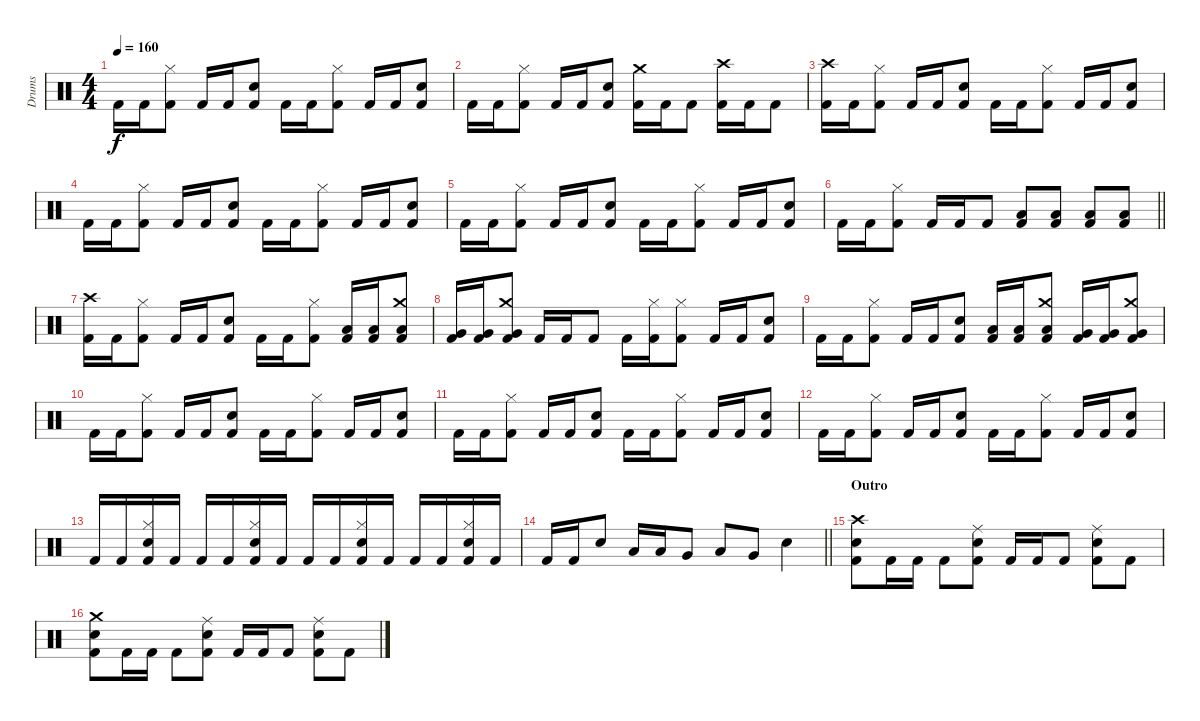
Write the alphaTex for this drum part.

\track ("Drums" "Drums") {instrument percussion}
\staff {score}
\articulation defaults
\ts (4 4)
\tempo 160
\clef neutral
\ks c "Kick (hit) 2".16{dy f} "Kick (hit) 2".16
("Hi-Hat (closed)" "Kick (hit) 2").8 "Kick (hit) 2".16 "Kick (hit) 2".16 ("Electric Snare (hit)" "Kick (hit) 2").8 "Kick (hit) 2".16 "Kick (hit) 2".16 ("Hi-Hat (closed)" "Kick (hit) 2").8 "Kick (hit) 2".16 "Kick (hit) 2".16 ("Electric Snare (hit)" "Kick (hit) 2").8 |
"Kick (hit) 2".16 "Kick (hit) 2".16 ("Hi-Hat (closed)" "Kick (hit) 2").8 "Kick (hit) 2".16 "Kick (hit) 2".16 ("Electric Snare (hit)" "Kick (hit) 2").8 ("Crash medium (hit)" "Kick (hit) 2").16 "Kick (hit) 2".16 "Kick (hit) 2".8 ("Crash high (hit)" "Kick (hit) 2").16 "Kick (hit) 2".16 "Kick (hit) 2".8 |
("Crash high (hit)" "Kick (hit) 2").16 "Kick (hit) 2".16 ("Hi-Hat (closed)" "Kick (hit) 2").8 "Kick (hit) 2".16 "Kick (hit) 2".16 ("Electric Snare (hit)" "Kick (hit) 2").8 "Kick (hit) 2".16 "Kick (hit) 2".16 ("Hi-Hat (closed)" "Kick (hit) 2").8 "Kick (hit) 2".16 "Kick (hit) 2".16 ("Electric Snare (hit)" "Kick (hit) 2").8 |
"Kick (hit) 2".16 "Kick (hit) 2".16 ("Hi-Hat (closed)" "Kick (hit) 2").8 "Kick (hit) 2".16 "Kick (hit) 2".16 ("Electric Snare (hit)" "Kick (hit) 2").8 "Kick (hit) 2".16 "Kick (hit) 2".16 ("Hi-Hat (closed)" "Kick (hit) 2").8 "Kick (hit) 2".16 "Kick (hit) 2".16 ("Electric Snare (hit)" "Kick (hit) 2").8 |
"Kick (hit) 2".16 "Kick (hit) 2".16 ("Hi-Hat (closed)" "Kick (hit) 2").8 "Kick (hit) 2".16 "Kick (hit) 2".16 ("Electric Snare (hit)" "Kick (hit) 2").8 "Kick (hit) 2".16 "Kick (hit) 2".16 ("Hi-Hat (closed)" "Kick (hit) 2").8 "Kick (hit) 2".16 "Kick (hit) 2".16 ("Electric Snare (hit)" "Kick (hit) 2").8 |
\barLineRight lightlight "Kick (hit) 2".16 "Kick (hit) 2".16
("Hi-Hat (closed)" "Kick (hit) 2").8 "Kick (hit) 2".16 "Kick (hit) 2".16 "Kick (hit) 2".8 ("Low Floor Tom (hit)" "Kick (hit) 2").8 ("Low Floor Tom (hit)" "Kick (hit) 2").8 ("Low Floor Tom (hit)" "Kick (hit) 2").8 ("Low Floor Tom (hit)" "Kick (hit) 2").8 |
("Crash high (hit)" "Kick (hit) 2").16 "Kick (hit) 2".16 ("Hi-Hat (closed)" "Kick (hit) 2").8 "Kick (hit) 2".16 "Kick (hit) 2".16 ("Electric Snare (hit)" "Kick (hit) 2").8 "Kick (hit) 2".16 "Kick (hit) 2".16 ("Hi-Hat (closed)" "Kick (hit) 2").8 ("Low Tom (hit)" "Kick (hit) 2").16 ("Low Tom (hit)" "Kick (hit) 2").16 ("Crash medium (hit)" "Low Tom (hit)" "Kick (hit) 2").8 |
("Very Low Tom (hit)" "Kick (hit) 2").16 ("Very Low Tom (hit)" "Kick (hit) 2").16 ("Crash medium (hit)" "Very Low Tom (hit)" "Kick (hit) 2").8 "Kick (hit) 2".16 "Kick (hit) 2".16 "Kick (hit) 2".8 "Kick (hit) 2".16 ("Hi-Hat (closed)" "Kick (hit) 2").16 ("Hi-Hat (closed)" "Kick (hit) 2").8 "Kick (hit) 2".16 "Kick (hit) 2".16 ("Electric Snare (hit)" "Kick (hit) 2").8 |
"Kick (hit) 2".16 "Kick (hit) 2".16 ("Hi-Hat (closed)" "Kick (hit) 2").8 "Kick (hit) 2".16 "Kick (hit) 2".16 ("Electric Snare (hit)" "Kick (hit) 2").8 ("Low Tom (hit)" "Kick (hit) 2").16 ("Low Tom (hit)" "Kick (hit) 2").16 ("Crash medium (hit)" "Low Tom (hit)" "Kick (hit) 2").8 ("Very Low Tom (hit)" "Kick (hit) 2").16 ("Very Low Tom (hit)" "Kick (hit) 2").16 ("Crash medium (hit)" "Very Low Tom (hit)" "Kick (hit) 2").8 |
"Kick (hit) 2".16 "Kick (hit) 2".16 ("Hi-Hat (closed)" "Kick (hit) 2").8 "Kick (hit) 2".16 "Kick (hit) 2".16 ("Electric Snare (hit)" "Kick (hit) 2").8 "Kick (hit) 2".16 "Kick (hit) 2".16 ("Hi-Hat (closed)" "Kick (hit) 2").8 "Kick (hit) 2".16 "Kick (hit) 2".16 ("Electric Snare (hit)" "Kick (hit) 2").8 |
"Kick (hit) 2".16 "Kick (hit) 2".16 ("Hi-Hat (closed)" "Kick (hit) 2").8 "Kick (hit) 2".16 "Kick (hit) 2".16 ("Electric Snare (hit)" "Kick (hit) 2").8 "Kick (hit) 2".16 "Kick (hit) 2".16 ("Hi-Hat (closed)" "Kick (hit) 2").8 "Kick (hit) 2".16 "Kick (hit) 2".16 ("Electric Snare (hit)" "Kick (hit) 2").8 |
"Kick (hit) 2".16 "Kick (hit) 2".16 ("Hi-Hat (closed)" "Kick (hit) 2").8 "Kick (hit) 2".16 "Kick (hit) 2".16 ("Electric Snare (hit)" "Kick (hit) 2").8 "Kick (hit) 2".16 "Kick (hit) 2".16 ("Hi-Hat (closed)" "Kick (hit) 2").8 "Kick (hit) 2".16 "Kick (hit) 2".16 ("Electric Snare (hit)" "Kick (hit) 2").8 |
"Kick (hit) 2".16 "Kick (hit) 2".16 ("Hi-Hat (closed)" "Electric Snare (hit)" "Kick (hit) 2").16 "Kick (hit) 2".16 "Kick (hit) 2".16 "Kick (hit) 2".16 ("Hi-Hat (closed)" "Electric Snare (hit)" "Kick (hit) 2").16 "Kick (hit) 2".16 "Kick (hit) 2".16 "Kick (hit) 2".16 ("Hi-Hat (closed)" "Electric Snare (hit)" "Kick (hit) 2").16 "Kick (hit) 2".16 "Kick (hit) 2".16 "Kick (hit) 2".16 ("Hi-Hat (closed)" "Electric Snare (hit)" "Kick (hit) 2").16 "Kick (hit) 2".16 |
\barLineRight lightlight "Kick (hit) 2".16 "Kick (hit) 2".16 "Electric Snare (hit)".8 "Low Tom (hit)".16 "Low Tom (hit)".16 "Very Low Tom (hit)".8 "Low Floor Tom (hit)".8 "Very Low Tom (hit)".8 "Electric Snare (hit)".4
|
\section ("" "Outro")
("Crash high (hit)" "Electric Snare (hit)" "Kick (hit) 2").8 "Kick (hit) 2".16 "Kick (hit) 2".16 "Kick (hit) 2".8 ("Ride (middle)" "Electric Snare (hit)" "Kick (hit) 2").8 "Kick (hit) 2".16 "Kick (hit) 2".16 "Kick (hit) 2".8 ("Ride (middle)" "Electric Snare (hit)" "Kick (hit) 2").8 "Kick (hit) 2".8 |
("Crash medium (hit)" "Electric Snare (hit)" "Kick (hit) 2").8 "Kick (hit) 2".16 "Kick (hit) 2".16 "Kick (hit) 2".8 ("Ride (middle)" "Electric Snare (hit)" "Kick (hit) 2").8 "Kick (hit) 2".16 "Kick (hit) 2".16 "Kick (hit) 2".8 ("Ride (middle)" "Electric Snare (hit)" "Kick (hit) 2").8 "Kick (hit) 2".8
